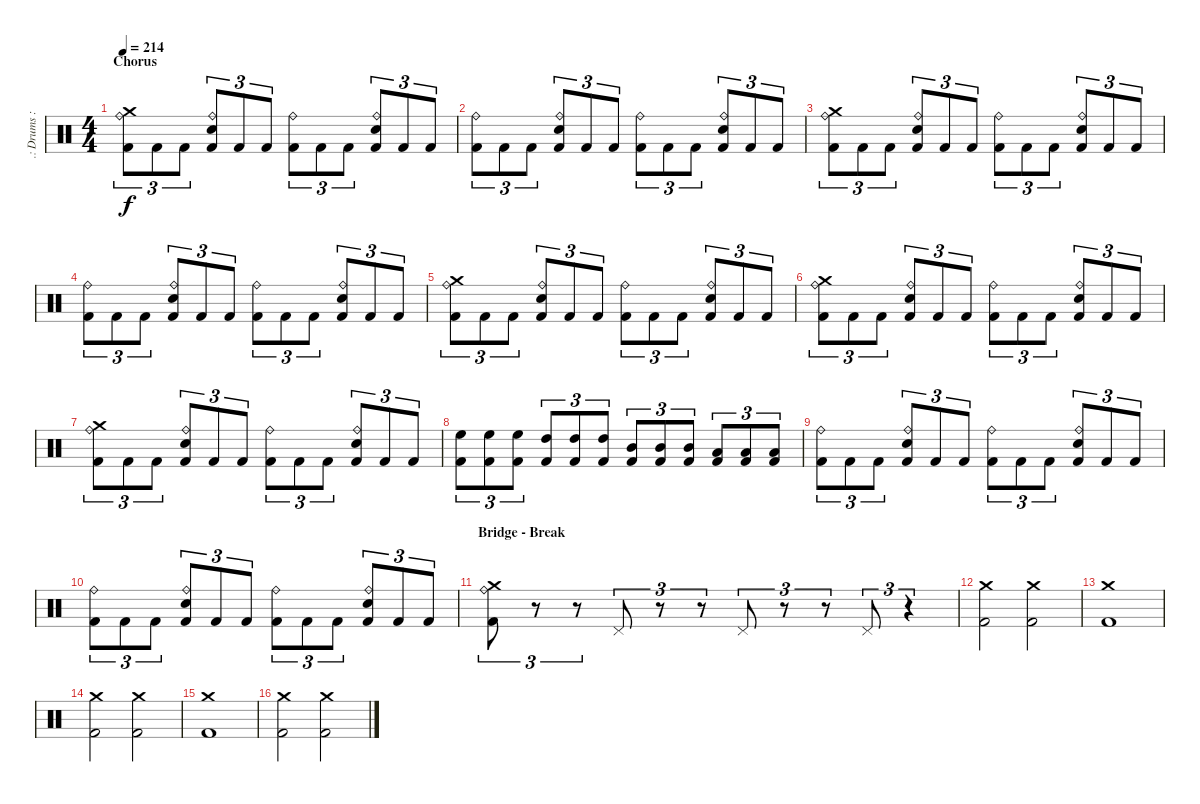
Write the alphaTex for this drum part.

\track (".: Drums :." ".: Drums :") {instrument percussion}
\staff {score}
\articulation defaults
\ts (4 4)
\section ("" "Chorus")
\tempo 214
\clef neutral
\ks c
("Kick (hit) 2" "Ride (bell)" "Crash medium (hit)").8{tu (3 2) dy f} "Kick (hit) 2".8{tu (3 2)} "Kick (hit) 2".8{tu (3 2)} ("Kick (hit) 2" "Ride (bell)" "Snare (hit) 2").8{tu (3 2)} "Kick (hit) 2".8{tu (3 2)} "Kick (hit) 2".8{tu (3 2)} ("Kick (hit) 2" "Ride (bell)").8{tu (3 2)} "Kick (hit) 2".8{tu (3 2)} "Kick (hit) 2".8{tu (3 2)} ("Kick (hit) 2" "Ride (bell)" "Snare (hit) 2").8{tu (3 2)} "Kick (hit) 2".8{tu (3 2)} "Kick (hit) 2".8{tu (3 2)} |
("Kick (hit) 2" "Ride (bell)").8{tu (3 2)} "Kick (hit) 2".8{tu (3 2)} "Kick (hit) 2".8{tu (3 2)} ("Kick (hit) 2" "Ride (bell)" "Snare (hit) 2").8{tu (3 2)} "Kick (hit) 2".8{tu (3 2)} "Kick (hit) 2".8{tu (3 2)} ("Kick (hit) 2" "Ride (bell)").8{tu (3 2)} "Kick (hit) 2".8{tu (3 2)} "Kick (hit) 2".8{tu (3 2)} ("Kick (hit) 2" "Ride (bell)" "Snare (hit) 2").8{tu (3 2)} "Kick (hit) 2".8{tu (3 2)} "Kick (hit) 2".8{tu (3 2)} |
("Kick (hit) 2" "Ride (bell)" "Crash medium (hit)").8{tu (3 2)} "Kick (hit) 2".8{tu (3 2)} "Kick (hit) 2".8{tu (3 2)} ("Kick (hit) 2" "Ride (bell)" "Snare (hit) 2").8{tu (3 2)} "Kick (hit) 2".8{tu (3 2)} "Kick (hit) 2".8{tu (3 2)} ("Kick (hit) 2" "Ride (bell)").8{tu (3 2)} "Kick (hit) 2".8{tu (3 2)} "Kick (hit) 2".8{tu (3 2)} ("Kick (hit) 2" "Ride (bell)" "Snare (hit) 2").8{tu (3 2)} "Kick (hit) 2".8{tu (3 2)} "Kick (hit) 2".8{tu (3 2)} |
("Kick (hit) 2" "Ride (bell)").8{tu (3 2)} "Kick (hit) 2".8{tu (3 2)} "Kick (hit) 2".8{tu (3 2)} ("Kick (hit) 2" "Ride (bell)" "Snare (hit) 2").8{tu (3 2)} "Kick (hit) 2".8{tu (3 2)} "Kick (hit) 2".8{tu (3 2)} ("Kick (hit) 2" "Ride (bell)").8{tu (3 2)} "Kick (hit) 2".8{tu (3 2)} "Kick (hit) 2".8{tu (3 2)} ("Kick (hit) 2" "Ride (bell)" "Snare (hit) 2").8{tu (3 2)} "Kick (hit) 2".8{tu (3 2)} "Kick (hit) 2".8{tu (3 2)} |
("Kick (hit) 2" "Ride (bell)" "Crash medium (hit)").8{tu (3 2)} "Kick (hit) 2".8{tu (3 2)} "Kick (hit) 2".8{tu (3 2)} ("Kick (hit) 2" "Ride (bell)" "Snare (hit) 2").8{tu (3 2)} "Kick (hit) 2".8{tu (3 2)} "Kick (hit) 2".8{tu (3 2)} ("Kick (hit) 2" "Ride (bell)").8{tu (3 2)} "Kick (hit) 2".8{tu (3 2)} "Kick (hit) 2".8{tu (3 2)} ("Kick (hit) 2" "Ride (bell)" "Snare (hit) 2").8{tu (3 2)} "Kick (hit) 2".8{tu (3 2)} "Kick (hit) 2".8{tu (3 2)} |
("Kick (hit) 2" "Ride (bell)" "Crash medium (hit)").8{tu (3 2)} "Kick (hit) 2".8{tu (3 2)} "Kick (hit) 2".8{tu (3 2)} ("Kick (hit) 2" "Ride (bell)" "Snare (hit) 2").8{tu (3 2)} "Kick (hit) 2".8{tu (3 2)} "Kick (hit) 2".8{tu (3 2)} ("Kick (hit) 2" "Ride (bell)").8{tu (3 2)} "Kick (hit) 2".8{tu (3 2)} "Kick (hit) 2".8{tu (3 2)} ("Kick (hit) 2" "Ride (bell)" "Snare (hit) 2").8{tu (3 2)} "Kick (hit) 2".8{tu (3 2)} "Kick (hit) 2".8{tu (3 2)} |
("Kick (hit) 2" "Ride (bell)" "Crash medium (hit)").8{tu (3 2)} "Kick (hit) 2".8{tu (3 2)} "Kick (hit) 2".8{tu (3 2)} ("Kick (hit) 2" "Ride (bell)" "Snare (hit) 2").8{tu (3 2)} "Kick (hit) 2".8{tu (3 2)} "Kick (hit) 2".8{tu (3 2)} ("Kick (hit) 2" "Ride (bell)").8{tu (3 2)} "Kick (hit) 2".8{tu (3 2)} "Kick (hit) 2".8{tu (3 2)} ("Kick (hit) 2" "Ride (bell)" "Snare (hit) 2").8{tu (3 2)} "Kick (hit) 2".8{tu (3 2)} "Kick (hit) 2".8{tu (3 2)} |
("Kick (hit) 2" "High Floor Tom (hit)").8{tu (3 2)} ("Kick (hit) 2" "High Floor Tom (hit)").8{tu (3 2)} ("Kick (hit) 2" "High Floor Tom (hit)").8{tu (3 2)} ("Kick (hit) 2" "High Tom (hit)").8{tu (3 2)} ("Kick (hit) 2" "High Tom (hit)").8{tu (3 2)} ("Kick (hit) 2" "High Tom (hit)").8{tu (3 2)} ("Kick (hit) 2" "Mid Tom (hit)").8{tu (3 2)} ("Kick (hit) 2" "Mid Tom (hit)").8{tu (3 2)} ("Kick (hit) 2" "Mid Tom (hit)").8{tu (3 2)} ("Kick (hit) 2" "Low Tom (hit)").8{tu (3 2)} ("Kick (hit) 2" "Low Tom (hit)").8{tu (3 2)} ("Kick (hit) 2" "Low Tom (hit)").8{tu (3 2)} |
("Kick (hit) 2" "Ride (bell)").8{tu (3 2)} "Kick (hit) 2".8{tu (3 2)} "Kick (hit) 2".8{tu (3 2)} ("Kick (hit) 2" "Ride (bell)" "Snare (hit) 2").8{tu (3 2)} "Kick (hit) 2".8{tu (3 2)} "Kick (hit) 2".8{tu (3 2)} ("Kick (hit) 2" "Ride (bell)").8{tu (3 2)} "Kick (hit) 2".8{tu (3 2)} "Kick (hit) 2".8{tu (3 2)} ("Kick (hit) 2" "Ride (bell)" "Snare (hit) 2").8{tu (3 2)} "Kick (hit) 2".8{tu (3 2)} "Kick (hit) 2".8{tu (3 2)} |
("Kick (hit) 2" "Ride (bell)").8{tu (3 2)} "Kick (hit) 2".8{tu (3 2)} "Kick (hit) 2".8{tu (3 2)} ("Kick (hit) 2" "Ride (bell)" "Snare (hit) 2").8{tu (3 2)} "Kick (hit) 2".8{tu (3 2)} "Kick (hit) 2".8{tu (3 2)} ("Kick (hit) 2" "Ride (bell)").8{tu (3 2)} "Kick (hit) 2".8{tu (3 2)} "Kick (hit) 2".8{tu (3 2)} ("Kick (hit) 2" "Ride (bell)" "Snare (hit) 2").8{tu (3 2)} "Kick (hit) 2".8{tu (3 2)} "Kick (hit) 2".8{tu (3 2)} |
\section ("" "Bridge - Break")
("Kick (hit) 2" "Ride (bell)" "Crash medium (hit)").8{tu (3 2)} r.8{tu (3 2)} r.8{tu (3 2)} "Pedal Hi-Hat (hit)".8{tu (3 2)} r.8{tu (3 2)} r.8{tu (3 2)} "Pedal Hi-Hat (hit)".8{tu (3 2)} r.8{tu (3 2)} r.8{tu (3 2)} "Pedal Hi-Hat (hit)".8{tu (3 2)} r.4{tu (3 2)} |
("Kick (hit) 2" "Crash medium (hit)").2 ("Kick (hit) 2" "Crash medium (hit)").2 |
("Kick (hit) 2" "Crash medium (hit)").1 |
("Kick (hit) 2" "Crash medium (hit)").2 ("Kick (hit) 2" "Crash medium (hit)").2 |
("Kick (hit) 2" "Crash medium (hit)").1 |
("Kick (hit) 2" "Crash medium (hit)").2 ("Kick (hit) 2" "Crash medium (hit)").2
